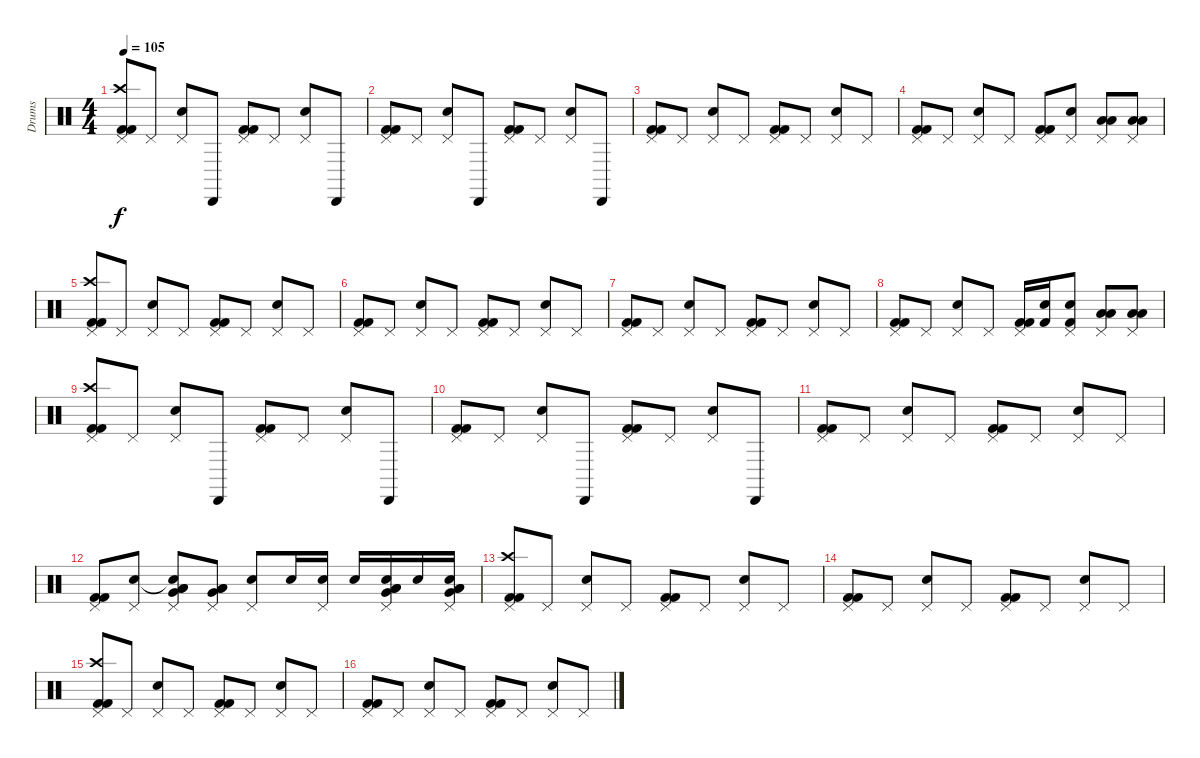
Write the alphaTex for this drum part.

\track ("Drums" "Drums") {instrument percussion}
\staff {score}
\articulation defaults
\ts (4 4)
\tempo 105
\clef neutral
\ks c
("Pedal Hi-Hat (hit)" "Crash high (hit)" "Kick (hit) 2" "Kick (hit) 2").8{dy f} "Pedal Hi-Hat (hit)".8 ("Pedal Hi-Hat (hit)" "Electric Snare (hit)").8 "Cabasa (hit)".8 ("Pedal Hi-Hat (hit)" "Kick (hit) 2" "Kick (hit) 2").8 "Pedal Hi-Hat (hit)".8 ("Pedal Hi-Hat (hit)" "Electric Snare (hit)").8 "Cabasa (hit)".8 |
("Pedal Hi-Hat (hit)" "Kick (hit) 2" "Kick (hit) 2").8 "Pedal Hi-Hat (hit)".8 ("Pedal Hi-Hat (hit)" "Electric Snare (hit)").8 "Cabasa (hit)".8 ("Pedal Hi-Hat (hit)" "Kick (hit) 2" "Kick (hit) 2").8 "Pedal Hi-Hat (hit)".8 ("Pedal Hi-Hat (hit)" "Electric Snare (hit)").8 "Cabasa (hit)".8 |
("Pedal Hi-Hat (hit)" "Kick (hit) 2" "Kick (hit) 2").8 "Pedal Hi-Hat (hit)".8 ("Pedal Hi-Hat (hit)" "Electric Snare (hit)").8 "Pedal Hi-Hat (hit)".8 ("Pedal Hi-Hat (hit)" "Kick (hit) 2" "Kick (hit) 2").8 "Pedal Hi-Hat (hit)".8 ("Pedal Hi-Hat (hit)" "Electric Snare (hit)").8 "Pedal Hi-Hat (hit)".8 |
("Pedal Hi-Hat (hit)" "Kick (hit) 2" "Kick (hit) 2").8 "Pedal Hi-Hat (hit)".8 ("Pedal Hi-Hat (hit)" "Electric Snare (hit)").8 "Pedal Hi-Hat (hit)".8 ("Pedal Hi-Hat (hit)" "Kick (hit) 2" "Kick (hit) 2").8 ("Pedal Hi-Hat (hit)" "Electric Snare (hit)").8 ("Pedal Hi-Hat (hit)" "Low Floor Tom (hit)" "Low Floor Tom (hit)").8 ("Pedal Hi-Hat (hit)" "Low Floor Tom (hit)" "Low Floor Tom (hit)").8 |
("Pedal Hi-Hat (hit)" "Crash high (hit)" "Kick (hit) 2" "Kick (hit) 2").8 "Pedal Hi-Hat (hit)".8 ("Pedal Hi-Hat (hit)" "Electric Snare (hit)").8 "Pedal Hi-Hat (hit)".8 ("Pedal Hi-Hat (hit)" "Kick (hit) 2" "Kick (hit) 2").8 "Pedal Hi-Hat (hit)".8 ("Pedal Hi-Hat (hit)" "Electric Snare (hit)").8 "Pedal Hi-Hat (hit)".8 |
("Pedal Hi-Hat (hit)" "Kick (hit) 2" "Kick (hit) 2").8 "Pedal Hi-Hat (hit)".8 ("Pedal Hi-Hat (hit)" "Electric Snare (hit)").8 "Pedal Hi-Hat (hit)".8 ("Pedal Hi-Hat (hit)" "Kick (hit) 2" "Kick (hit) 2").8 "Pedal Hi-Hat (hit)".8 ("Pedal Hi-Hat (hit)" "Electric Snare (hit)").8 "Pedal Hi-Hat (hit)".8 |
("Pedal Hi-Hat (hit)" "Kick (hit) 2" "Kick (hit) 2").8 "Pedal Hi-Hat (hit)".8 ("Pedal Hi-Hat (hit)" "Electric Snare (hit)").8 "Pedal Hi-Hat (hit)".8 ("Pedal Hi-Hat (hit)" "Kick (hit) 2" "Kick (hit) 2").8 "Pedal Hi-Hat (hit)".8 ("Pedal Hi-Hat (hit)" "Electric Snare (hit)").8 "Pedal Hi-Hat (hit)".8 |
("Pedal Hi-Hat (hit)" "Kick (hit) 2" "Kick (hit) 2").8 "Pedal Hi-Hat (hit)".8 ("Pedal Hi-Hat (hit)" "Electric Snare (hit)").8 "Pedal Hi-Hat (hit)".8 ("Pedal Hi-Hat (hit)" "Kick (hit) 2" "Kick (hit) 2").16 ("Electric Snare (hit)" "Kick (hit) 2").16 ("Pedal Hi-Hat (hit)" "Electric Snare (hit)" "Kick (hit) 2").8 ("Pedal Hi-Hat (hit)" "Low Floor Tom (hit)" "Low Floor Tom (hit)").8 ("Pedal Hi-Hat (hit)" "Low Floor Tom (hit)" "Low Floor Tom (hit)").8 |
("Pedal Hi-Hat (hit)" "Crash high (hit)" "Kick (hit) 2" "Kick (hit) 2").8 "Pedal Hi-Hat (hit)".8 ("Pedal Hi-Hat (hit)" "Electric Snare (hit)").8 "Cabasa (hit)".8 ("Pedal Hi-Hat (hit)" "Kick (hit) 2" "Kick (hit) 2").8 "Pedal Hi-Hat (hit)".8 ("Pedal Hi-Hat (hit)" "Electric Snare (hit)").8 "Cabasa (hit)".8 |
("Pedal Hi-Hat (hit)" "Kick (hit) 2" "Kick (hit) 2").8 "Pedal Hi-Hat (hit)".8 ("Pedal Hi-Hat (hit)" "Electric Snare (hit)").8 "Cabasa (hit)".8 ("Pedal Hi-Hat (hit)" "Kick (hit) 2" "Kick (hit) 2").8 "Pedal Hi-Hat (hit)".8 ("Pedal Hi-Hat (hit)" "Electric Snare (hit)").8 "Cabasa (hit)".8 |
("Pedal Hi-Hat (hit)" "Kick (hit) 2" "Kick (hit) 2").8 "Pedal Hi-Hat (hit)".8 ("Pedal Hi-Hat (hit)" "Electric Snare (hit)").8 "Pedal Hi-Hat (hit)".8 ("Pedal Hi-Hat (hit)" "Kick (hit) 2" "Kick (hit) 2").8 "Pedal Hi-Hat (hit)".8 ("Pedal Hi-Hat (hit)" "Electric Snare (hit)").8 "Pedal Hi-Hat (hit)".8 |
("Pedal Hi-Hat (hit)" "Kick (hit) 2" "Kick (hit) 2").8 ("Pedal Hi-Hat (hit)" "Snare (hit) 2").8 ("Pedal Hi-Hat (hit)" "Electric Snare (hit)"{t} "Low Floor Tom (hit)" "Low Floor Tom (hit)" "Very Low Tom (hit)").8 ("Pedal Hi-Hat (hit)" "Low Floor Tom (hit)" "Low Floor Tom (hit)" "Very Low Tom (hit)").8 ("Pedal Hi-Hat (hit)" "Snare (hit) 2").8 "Snare (hit) 2".16 ("Pedal Hi-Hat (hit)" "Snare (hit) 2").16 "Snare (hit) 2".16 ("Pedal Hi-Hat (hit)" "Snare (hit) 2" "Low Floor Tom (hit)" "Low Floor Tom (hit)" "Very Low Tom (hit)").16 "Snare (hit) 2".16 ("Pedal Hi-Hat (hit)" "Snare (hit) 2" "Low Floor Tom (hit)" "Low Floor Tom (hit)" "Very Low Tom (hit)").16 |
("Pedal Hi-Hat (hit)" "Crash high (hit)" "Kick (hit) 2" "Kick (hit) 2").8 "Pedal Hi-Hat (hit)".8 ("Pedal Hi-Hat (hit)" "Electric Snare (hit)").8 "Pedal Hi-Hat (hit)".8 ("Pedal Hi-Hat (hit)" "Kick (hit) 2" "Kick (hit) 2").8 "Pedal Hi-Hat (hit)".8 ("Pedal Hi-Hat (hit)" "Electric Snare (hit)").8 "Pedal Hi-Hat (hit)".8 |
("Pedal Hi-Hat (hit)" "Kick (hit) 2" "Kick (hit) 2").8 "Pedal Hi-Hat (hit)".8 ("Pedal Hi-Hat (hit)" "Electric Snare (hit)").8 "Pedal Hi-Hat (hit)".8 ("Pedal Hi-Hat (hit)" "Kick (hit) 2" "Kick (hit) 2").8 "Pedal Hi-Hat (hit)".8 ("Pedal Hi-Hat (hit)" "Electric Snare (hit)").8 "Pedal Hi-Hat (hit)".8 |
("Pedal Hi-Hat (hit)" "Crash high (hit)" "Kick (hit) 2" "Kick (hit) 2").8 "Pedal Hi-Hat (hit)".8 ("Pedal Hi-Hat (hit)" "Electric Snare (hit)").8 "Pedal Hi-Hat (hit)".8 ("Pedal Hi-Hat (hit)" "Kick (hit) 2" "Kick (hit) 2").8 "Pedal Hi-Hat (hit)".8 ("Pedal Hi-Hat (hit)" "Electric Snare (hit)").8 "Pedal Hi-Hat (hit)".8 |
("Pedal Hi-Hat (hit)" "Kick (hit) 2" "Kick (hit) 2").8 "Pedal Hi-Hat (hit)".8 ("Pedal Hi-Hat (hit)" "Electric Snare (hit)").8 "Pedal Hi-Hat (hit)".8 ("Pedal Hi-Hat (hit)" "Kick (hit) 2" "Kick (hit) 2").8 "Pedal Hi-Hat (hit)".8 ("Pedal Hi-Hat (hit)" "Electric Snare (hit)").8 "Pedal Hi-Hat (hit)".8
